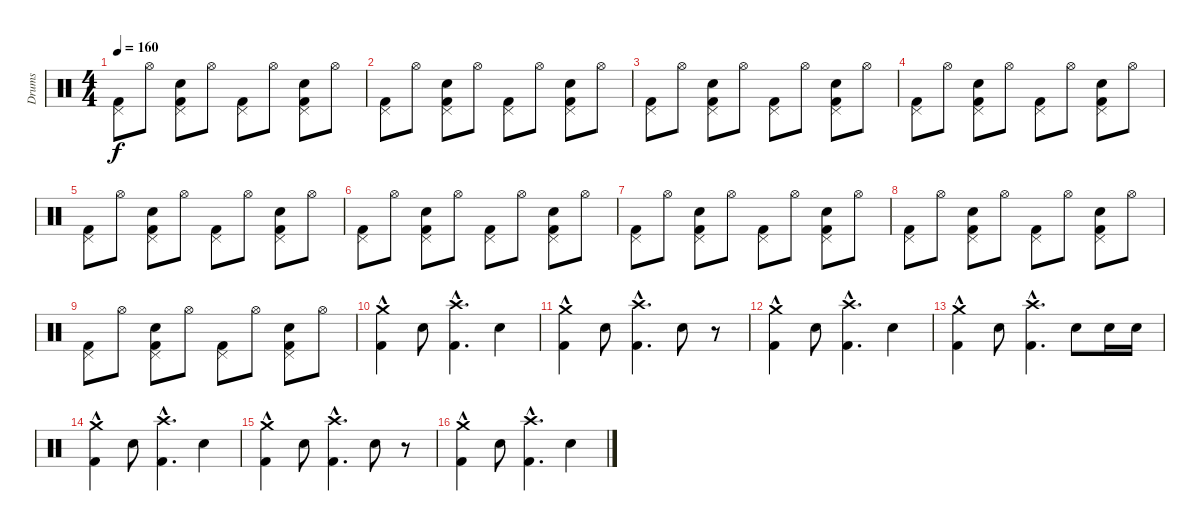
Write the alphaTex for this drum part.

\track ("Drums" "Drums") {instrument percussion}
\staff {score}
\articulation defaults
\ts (4 4)
\tempo 160
\clef neutral
\ks c
("Pedal Hi-Hat (hit)" "Kick (hit) 2").8{dy f} "Hi-Hat (open)".8 ("Pedal Hi-Hat (hit)" "Electric Snare (hit)" "Kick (hit) 2").8 "Hi-Hat (open)".8 ("Pedal Hi-Hat (hit)" "Kick (hit) 2").8 "Hi-Hat (open)".8 ("Pedal Hi-Hat (hit)" "Electric Snare (hit)" "Kick (hit) 2").8 "Hi-Hat (open)".8 |
("Pedal Hi-Hat (hit)" "Kick (hit) 2").8{volume 16 balance 8} "Hi-Hat (open)".8 ("Pedal Hi-Hat (hit)" "Electric Snare (hit)" "Kick (hit) 2").8 "Hi-Hat (open)".8 ("Pedal Hi-Hat (hit)" "Kick (hit) 2").8 "Hi-Hat (open)".8 ("Pedal Hi-Hat (hit)" "Electric Snare (hit)" "Kick (hit) 2").8 "Hi-Hat (open)".8 |
("Pedal Hi-Hat (hit)" "Kick (hit) 2").8 "Hi-Hat (open)".8 ("Pedal Hi-Hat (hit)" "Electric Snare (hit)" "Kick (hit) 2").8 "Hi-Hat (open)".8 ("Pedal Hi-Hat (hit)" "Kick (hit) 2").8 "Hi-Hat (open)".8 ("Pedal Hi-Hat (hit)" "Electric Snare (hit)" "Kick (hit) 2").8 "Hi-Hat (open)".8 |
("Pedal Hi-Hat (hit)" "Kick (hit) 2").8 "Hi-Hat (open)".8 ("Pedal Hi-Hat (hit)" "Electric Snare (hit)" "Kick (hit) 2").8 "Hi-Hat (open)".8 ("Pedal Hi-Hat (hit)" "Kick (hit) 2").8 "Hi-Hat (open)".8 ("Pedal Hi-Hat (hit)" "Electric Snare (hit)" "Kick (hit) 2").8 "Hi-Hat (open)".8 |
("Pedal Hi-Hat (hit)" "Kick (hit) 2").8 "Hi-Hat (open)".8 ("Pedal Hi-Hat (hit)" "Electric Snare (hit)" "Kick (hit) 2").8 "Hi-Hat (open)".8 ("Pedal Hi-Hat (hit)" "Kick (hit) 2").8 "Hi-Hat (open)".8 ("Pedal Hi-Hat (hit)" "Electric Snare (hit)" "Kick (hit) 2").8 "Hi-Hat (open)".8 |
("Pedal Hi-Hat (hit)" "Kick (hit) 2").8 "Hi-Hat (open)".8 ("Pedal Hi-Hat (hit)" "Electric Snare (hit)" "Kick (hit) 2").8 "Hi-Hat (open)".8 ("Pedal Hi-Hat (hit)" "Kick (hit) 2").8 "Hi-Hat (open)".8 ("Pedal Hi-Hat (hit)" "Electric Snare (hit)" "Kick (hit) 2").8 "Hi-Hat (open)".8 |
("Pedal Hi-Hat (hit)" "Kick (hit) 2").8 "Hi-Hat (open)".8 ("Pedal Hi-Hat (hit)" "Electric Snare (hit)" "Kick (hit) 2").8 "Hi-Hat (open)".8 ("Pedal Hi-Hat (hit)" "Kick (hit) 2").8 "Hi-Hat (open)".8 ("Pedal Hi-Hat (hit)" "Electric Snare (hit)" "Kick (hit) 2").8 "Hi-Hat (open)".8 |
("Pedal Hi-Hat (hit)" "Kick (hit) 2").8 "Hi-Hat (open)".8 ("Pedal Hi-Hat (hit)" "Electric Snare (hit)" "Kick (hit) 2").8 "Hi-Hat (open)".8 ("Pedal Hi-Hat (hit)" "Kick (hit) 2").8 "Hi-Hat (open)".8 ("Pedal Hi-Hat (hit)" "Electric Snare (hit)" "Kick (hit) 2").8 "Hi-Hat (open)".8 |
("Pedal Hi-Hat (hit)" "Kick (hit) 2").8 "Hi-Hat (open)".8 ("Pedal Hi-Hat (hit)" "Kick (hit) 2" "Electric Snare (hit)").8 "Hi-Hat (open)".8 ("Pedal Hi-Hat (hit)" "Kick (hit) 2").8 "Hi-Hat (open)".8 ("Pedal Hi-Hat (hit)" "Kick (hit) 2" "Electric Snare (hit)").8 "Hi-Hat (open)".8 |
("Crash medium (hit)"{hac} "Kick (hit) 2"{hac}).4 "Electric Snare (hit)".8 ("Crash high (hit)"{hac} "Kick (hit) 2"{hac}).4{d} "Electric Snare (hit)".4 |
("Crash medium (hit)"{hac} "Kick (hit) 2"{hac}).4 "Electric Snare (hit)".8 ("Crash high (hit)"{hac} "Kick (hit) 2"{hac}).4{d} "Electric Snare (hit)".8 r.8 |
("Crash medium (hit)"{hac} "Kick (hit) 2"{hac}).4 "Electric Snare (hit)".8 ("Crash high (hit)"{hac} "Kick (hit) 2"{hac}).4{d} "Electric Snare (hit)".4 |
("Crash medium (hit)"{hac} "Kick (hit) 2"{hac}).4 "Electric Snare (hit)".8 ("Crash high (hit)"{hac} "Kick (hit) 2"{hac}).4{d} "Electric Snare (hit)".8 "Electric Snare (hit)".16 "Electric Snare (hit)".16 |
("Crash medium (hit)"{hac} "Kick (hit) 2"{hac}).4 "Electric Snare (hit)".8 ("Crash high (hit)"{hac} "Kick (hit) 2"{hac}).4{d} "Electric Snare (hit)".4 |
("Crash medium (hit)"{hac} "Kick (hit) 2"{hac}).4 "Electric Snare (hit)".8 ("Crash high (hit)"{hac} "Kick (hit) 2"{hac}).4{d} "Electric Snare (hit)".8 r.8 |
("Crash medium (hit)"{hac} "Kick (hit) 2"{hac}).4 "Electric Snare (hit)".8 ("Crash high (hit)"{hac} "Kick (hit) 2"{hac}).4{d} "Electric Snare (hit)".4
